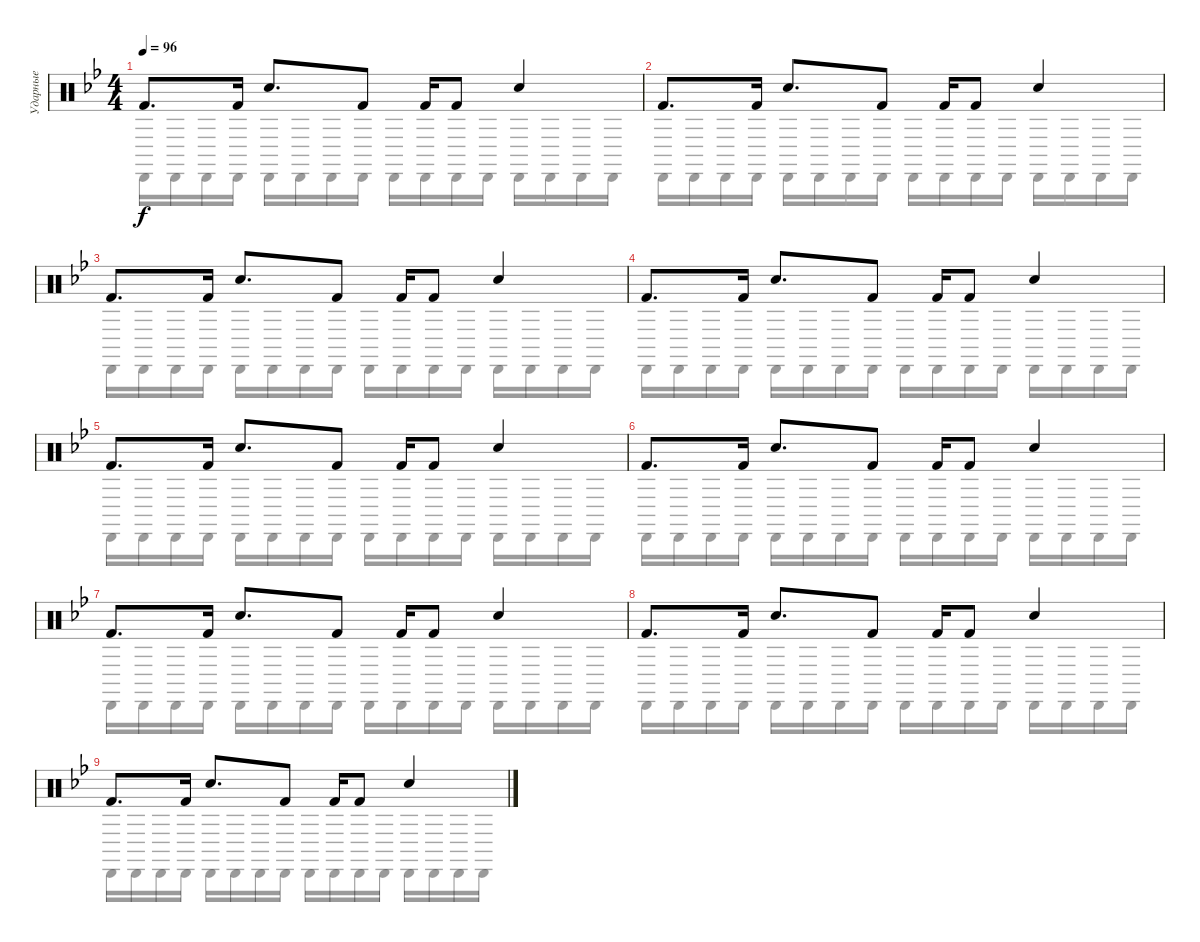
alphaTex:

\track ("Ударные" "Ударные") {instrument percussion}
\staff {score}
\articulation defaults
\voice
\ts (4 4)
\tempo 96
\clef neutral
\ks bb "Kick (hit) 2".8{d dy f} "Kick (hit) 2".16 "Hand Clap (hit)".8{d} "Kick (hit) 2".8 "Kick (hit) 2".16 "Kick (hit) 2".8 "Hand Clap (hit)".4
|
"Kick (hit) 2".8{d} "Kick (hit) 2".16 "Hand Clap (hit)".8{d} "Kick (hit) 2".8 "Kick (hit) 2".16 "Kick (hit) 2".8 "Hand Clap (hit)".4 |
"Kick (hit) 2".8{d} "Kick (hit) 2".16 "Hand Clap (hit)".8{d} "Kick (hit) 2".8 "Kick (hit) 2".16 "Kick (hit) 2".8 "Hand Clap (hit)".4 |
"Kick (hit) 2".8{d} "Kick (hit) 2".16 "Hand Clap (hit)".8{d} "Kick (hit) 2".8 "Kick (hit) 2".16 "Kick (hit) 2".8 "Hand Clap (hit)".4 |
"Kick (hit) 2".8{d} "Kick (hit) 2".16 "Hand Clap (hit)".8{d} "Kick (hit) 2".8 "Kick (hit) 2".16 "Kick (hit) 2".8 "Hand Clap (hit)".4 |
"Kick (hit) 2".8{d} "Kick (hit) 2".16 "Hand Clap (hit)".8{d} "Kick (hit) 2".8 "Kick (hit) 2".16 "Kick (hit) 2".8 "Hand Clap (hit)".4 |
"Kick (hit) 2".8{d} "Kick (hit) 2".16 "Hand Clap (hit)".8{d} "Kick (hit) 2".8 "Kick (hit) 2".16 "Kick (hit) 2".8 "Hand Clap (hit)".4 |
"Kick (hit) 2".8{d} "Kick (hit) 2".16 "Hand Clap (hit)".8{d} "Kick (hit) 2".8 "Kick (hit) 2".16 "Kick (hit) 2".8 "Hand Clap (hit)".4 |
"Kick (hit) 2".8{d} "Kick (hit) 2".16 "Hand Clap (hit)".8{d} "Kick (hit) 2".8 "Kick (hit) 2".16 "Kick (hit) 2".8 "Hand Clap (hit)".4 |
|
|
|
|
|
|
\voice
\clef neutral
\ottava regular
\simile none
\ks bb "Cabasa (hit)".16{dy f} "Cabasa (hit)".16 "Cabasa (hit)".16 "Cabasa (hit)".16 "Cabasa (hit)".16 "Cabasa (hit)".16 "Cabasa (hit)".16 "Cabasa (hit)".16 "Cabasa (hit)".16 "Cabasa (hit)".16 "Cabasa (hit)".16 "Cabasa (hit)".16 "Cabasa (hit)".16 "Cabasa (hit)".16 "Cabasa (hit)".16 "Cabasa (hit)".16
|
"Cabasa (hit)".16 "Cabasa (hit)".16 "Cabasa (hit)".16 "Cabasa (hit)".16 "Cabasa (hit)".16 "Cabasa (hit)".16 "Cabasa (hit)".16 "Cabasa (hit)".16 "Cabasa (hit)".16 "Cabasa (hit)".16 "Cabasa (hit)".16 "Cabasa (hit)".16 "Cabasa (hit)".16 "Cabasa (hit)".16 "Cabasa (hit)".16 "Cabasa (hit)".16 |
"Cabasa (hit)".16 "Cabasa (hit)".16 "Cabasa (hit)".16 "Cabasa (hit)".16 "Cabasa (hit)".16 "Cabasa (hit)".16 "Cabasa (hit)".16 "Cabasa (hit)".16 "Cabasa (hit)".16 "Cabasa (hit)".16 "Cabasa (hit)".16 "Cabasa (hit)".16 "Cabasa (hit)".16 "Cabasa (hit)".16 "Cabasa (hit)".16 "Cabasa (hit)".16 |
"Cabasa (hit)".16 "Cabasa (hit)".16 "Cabasa (hit)".16 "Cabasa (hit)".16 "Cabasa (hit)".16 "Cabasa (hit)".16 "Cabasa (hit)".16 "Cabasa (hit)".16 "Cabasa (hit)".16 "Cabasa (hit)".16 "Cabasa (hit)".16 "Cabasa (hit)".16 "Cabasa (hit)".16 "Cabasa (hit)".16 "Cabasa (hit)".16 "Cabasa (hit)".16 |
"Cabasa (hit)".16 "Cabasa (hit)".16 "Cabasa (hit)".16 "Cabasa (hit)".16 "Cabasa (hit)".16 "Cabasa (hit)".16 "Cabasa (hit)".16 "Cabasa (hit)".16 "Cabasa (hit)".16 "Cabasa (hit)".16 "Cabasa (hit)".16 "Cabasa (hit)".16 "Cabasa (hit)".16 "Cabasa (hit)".16 "Cabasa (hit)".16 "Cabasa (hit)".16 |
"Cabasa (hit)".16 "Cabasa (hit)".16 "Cabasa (hit)".16 "Cabasa (hit)".16 "Cabasa (hit)".16 "Cabasa (hit)".16 "Cabasa (hit)".16 "Cabasa (hit)".16 "Cabasa (hit)".16 "Cabasa (hit)".16 "Cabasa (hit)".16 "Cabasa (hit)".16 "Cabasa (hit)".16 "Cabasa (hit)".16 "Cabasa (hit)".16 "Cabasa (hit)".16 |
"Cabasa (hit)".16 "Cabasa (hit)".16 "Cabasa (hit)".16 "Cabasa (hit)".16 "Cabasa (hit)".16 "Cabasa (hit)".16 "Cabasa (hit)".16 "Cabasa (hit)".16 "Cabasa (hit)".16 "Cabasa (hit)".16 "Cabasa (hit)".16 "Cabasa (hit)".16 "Cabasa (hit)".16 "Cabasa (hit)".16 "Cabasa (hit)".16 "Cabasa (hit)".16 |
"Cabasa (hit)".16 "Cabasa (hit)".16 "Cabasa (hit)".16 "Cabasa (hit)".16 "Cabasa (hit)".16 "Cabasa (hit)".16 "Cabasa (hit)".16 "Cabasa (hit)".16 "Cabasa (hit)".16 "Cabasa (hit)".16 "Cabasa (hit)".16 "Cabasa (hit)".16 "Cabasa (hit)".16 "Cabasa (hit)".16 "Cabasa (hit)".16 "Cabasa (hit)".16 |
"Cabasa (hit)".16 "Cabasa (hit)".16 "Cabasa (hit)".16 "Cabasa (hit)".16 "Cabasa (hit)".16 "Cabasa (hit)".16 "Cabasa (hit)".16 "Cabasa (hit)".16 "Cabasa (hit)".16 "Cabasa (hit)".16 "Cabasa (hit)".16 "Cabasa (hit)".16 "Cabasa (hit)".16 "Cabasa (hit)".16 "Cabasa (hit)".16 "Cabasa (hit)".16 |
|
|
|
|
|
|
